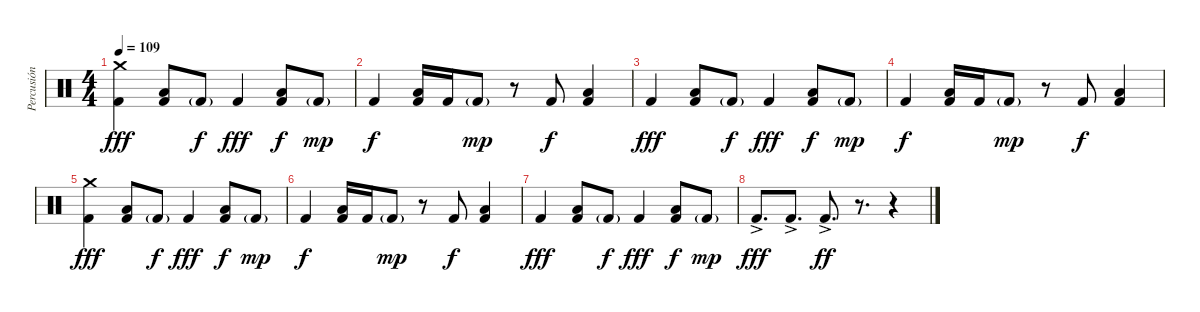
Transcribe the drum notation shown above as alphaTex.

\track ("Percusión" "Percusión") {instrument percussion}
\staff {score}
\articulation defaults
\ts (4 4)
\tempo 109
\clef neutral
\ks c
("Crash medium (hit)" "Kick (hit) 2").4{dy fff} ("Low Tom (hit)" "Kick (hit) 2").8 "Kick (hit) 2"{g}.8{dy f} "Kick (hit) 2".4{dy fff} ("Low Tom (hit)" "Kick (hit) 2").8{dy f} "Kick (hit) 2"{g}.8{dy mp} |
"Kick (hit) 2".4{dy f} ("Low Tom (hit)" "Kick (hit) 2").16 "Kick (hit) 2".16 "Kick (hit) 2"{g}.8{dy mp} r.8 "Kick (hit) 2".8{dy f} ("Low Tom (hit)" "Kick (hit) 2").4 |
"Kick (hit) 2".4{dy fff} ("Low Tom (hit)" "Kick (hit) 2").8 "Kick (hit) 2"{g}.8{dy f} "Kick (hit) 2".4{dy fff} ("Low Tom (hit)" "Kick (hit) 2").8{dy f} "Kick (hit) 2"{g}.8{dy mp} |
"Kick (hit) 2".4{dy f} ("Low Tom (hit)" "Kick (hit) 2").16 "Kick (hit) 2".16 "Kick (hit) 2"{g}.8{dy mp} r.8 "Kick (hit) 2".8{dy f} ("Low Tom (hit)" "Kick (hit) 2").4 |
("Crash medium (hit)" "Kick (hit) 2").4{dy fff} ("Low Tom (hit)" "Kick (hit) 2").8 "Kick (hit) 2"{g}.8{dy f} "Kick (hit) 2".4{dy fff} ("Low Tom (hit)" "Kick (hit) 2").8{dy f} "Kick (hit) 2"{g}.8{dy mp} |
"Kick (hit) 2".4{dy f} ("Low Tom (hit)" "Kick (hit) 2").16 "Kick (hit) 2".16 "Kick (hit) 2"{g}.8{dy mp} r.8 "Kick (hit) 2".8{dy f} ("Low Tom (hit)" "Kick (hit) 2").4 |
"Kick (hit) 2".4{dy fff} ("Low Tom (hit)" "Kick (hit) 2").8 "Kick (hit) 2"{g}.8{dy f} "Kick (hit) 2".4{dy fff} ("Low Tom (hit)" "Kick (hit) 2").8{dy f} "Kick (hit) 2"{g}.8{dy mp} |
"Kick (hit) 2"{ac}.8{d dy fff} "Kick (hit) 2"{ac}.8{d} "Kick (hit) 2"{ac}.8{d dy ff} r.8{d} r.4
